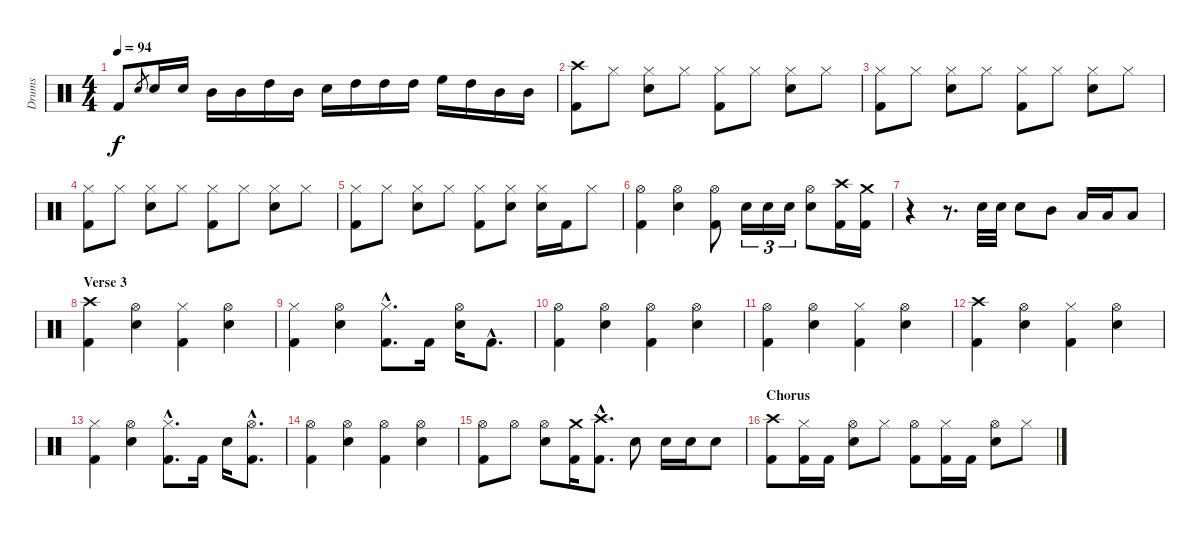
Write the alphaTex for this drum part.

\track ("Drums" "Drums") {instrument percussion}
\staff {score}
\articulation defaults
\ts (4 4)
\tempo 94
\clef neutral
\ks c "Kick (hit) 2".8{dy f} "Snare (hit) 2".8{gr} "Snare (hit) 2".16 "Snare (hit) 2".16 "Mid Tom (hit)".16 "Mid Tom (hit)".16 "High Tom (hit)".16 "Mid Tom (hit)".16 "Snare (hit) 2".16 "High Tom (hit)".16 "High Tom (hit)".16 "High Tom (hit)".16 "High Floor Tom (hit)".16 "High Tom (hit)".16 "Mid Tom (hit)".16 "Mid Tom (hit)".16
|
("Crash high (hit)" "Kick (hit) 2").8 "Hi-Hat (closed)".8 ("Hi-Hat (closed)" "Snare (hit) 2").8 "Hi-Hat (closed)".8 ("Hi-Hat (closed)" "Kick (hit) 2").8 "Hi-Hat (closed)".8 ("Hi-Hat (closed)" "Snare (hit) 2").8 "Hi-Hat (closed)".8 |
("Hi-Hat (closed)" "Kick (hit) 2").8 "Hi-Hat (closed)".8 ("Hi-Hat (closed)" "Snare (hit) 2").8 "Hi-Hat (closed)".8 ("Hi-Hat (closed)" "Kick (hit) 2").8 "Hi-Hat (closed)".8 ("Hi-Hat (closed)" "Snare (hit) 2").8 "Hi-Hat (closed)".8 |
("Hi-Hat (closed)" "Kick (hit) 2").8 "Hi-Hat (closed)".8 ("Hi-Hat (closed)" "Snare (hit) 2").8 "Hi-Hat (closed)".8 ("Hi-Hat (closed)" "Kick (hit) 2").8 "Hi-Hat (closed)".8 ("Hi-Hat (closed)" "Snare (hit) 2").8 "Hi-Hat (closed)".8 |
("Hi-Hat (closed)" "Kick (hit) 2").8 "Hi-Hat (closed)".8 ("Hi-Hat (closed)" "Snare (hit) 2").8 "Hi-Hat (closed)".8 ("Hi-Hat (closed)" "Kick (hit) 2").8 ("Hi-Hat (closed)" "Snare (hit) 2").8 ("Hi-Hat (closed)" "Snare (hit) 2").16 "Kick (hit) 2".16 "Hi-Hat (closed)".8 |
("Hi-Hat (open)" "Kick (hit) 2").4 ("Hi-Hat (open)" "Snare (hit) 2").4 ("Hi-Hat (open)" "Kick (hit) 2").8 "Snare (hit) 2".16{tu (3 2)} "Snare (hit) 2".16{tu (3 2)} "Snare (hit) 2".16{tu (3 2)} ("Hi-Hat (open)" "Snare (hit) 2").8 ("Crash high (hit)" "Kick (hit) 2").16 ("Crash medium (hit)" "Kick (hit) 2").16 |
r.4 r.8{d} "Snare (hit) 2".32 "Snare (hit) 2".32 "Snare (hit) 2".8 "Mid Tom (hit)".8 "Low Tom (hit)".16 "Low Tom (hit)".16 "Low Tom (hit)".8 |
\section ("" "Verse 3")
("Crash high (hit)" "Kick (hit) 2").4 ("Hi-Hat (open)" "Snare (hit) 2").4 ("Hi-Hat (closed)" "Kick (hit) 2").4 ("Hi-Hat (open)" "Snare (hit) 2").4 |
("Hi-Hat (closed)" "Kick (hit) 2").4 ("Hi-Hat (open)" "Snare (hit) 2").4 ("Hi-Hat (closed)"{hac} "Kick (hit) 2"{hac}).8{d} "Kick (hit) 2".16 ("Hi-Hat (open)" "Snare (hit) 2").16 "Kick (hit) 2"{hac}.8{d} |
("Hi-Hat (open)" "Kick (hit) 2").4 ("Hi-Hat (open)" "Snare (hit) 2").4 ("Hi-Hat (open)" "Kick (hit) 2").4 ("Hi-Hat (open)" "Snare (hit) 2").4 |
("Hi-Hat (open)" "Kick (hit) 2").4 ("Hi-Hat (open)" "Snare (hit) 2").4 ("Hi-Hat (closed)" "Kick (hit) 2").4 ("Hi-Hat (open)" "Snare (hit) 2").4 |
("Crash high (hit)" "Kick (hit) 2").4 ("Hi-Hat (open)" "Snare (hit) 2").4 ("Hi-Hat (closed)" "Kick (hit) 2").4 ("Hi-Hat (open)" "Snare (hit) 2").4 |
("Hi-Hat (closed)" "Kick (hit) 2").4 ("Hi-Hat (open)" "Snare (hit) 2").4 ("Hi-Hat (closed)"{hac} "Kick (hit) 2"{hac}).8{d} "Kick (hit) 2".16 "Snare (hit) 2".16 ("Hi-Hat (open)"{hac} "Kick (hit) 2"{hac}).8{d} |
("Hi-Hat (open)" "Kick (hit) 2").4 ("Hi-Hat (open)" "Snare (hit) 2").4 ("Hi-Hat (open)" "Kick (hit) 2").4 ("Hi-Hat (open)" "Snare (hit) 2").4 |
("Hi-Hat (open)" "Kick (hit) 2").8 "Hi-Hat (open)".8 ("Hi-Hat (open)" "Snare (hit) 2").8 ("Crash medium (hit)" "Kick (hit) 2").16 ("Crash high (hit)"{hac} "Kick (hit) 2"{hac}).8{d} "Snare (hit) 2".8 "Snare (hit) 2".16 "Snare (hit) 2".16 "Snare (hit) 2".8 |
\section ("" "Chorus")
("Crash high (hit)" "Kick (hit) 2").8 ("Hi-Hat (closed)" "Kick (hit) 2").16 "Kick (hit) 2".16 ("Hi-Hat (open)" "Snare (hit) 2").8 "Hi-Hat (closed)".8 ("Hi-Hat (open)" "Kick (hit) 2").8 ("Hi-Hat (closed)" "Kick (hit) 2").16 "Kick (hit) 2".16 ("Hi-Hat (open)" "Snare (hit) 2").8 "Hi-Hat (closed)".8
